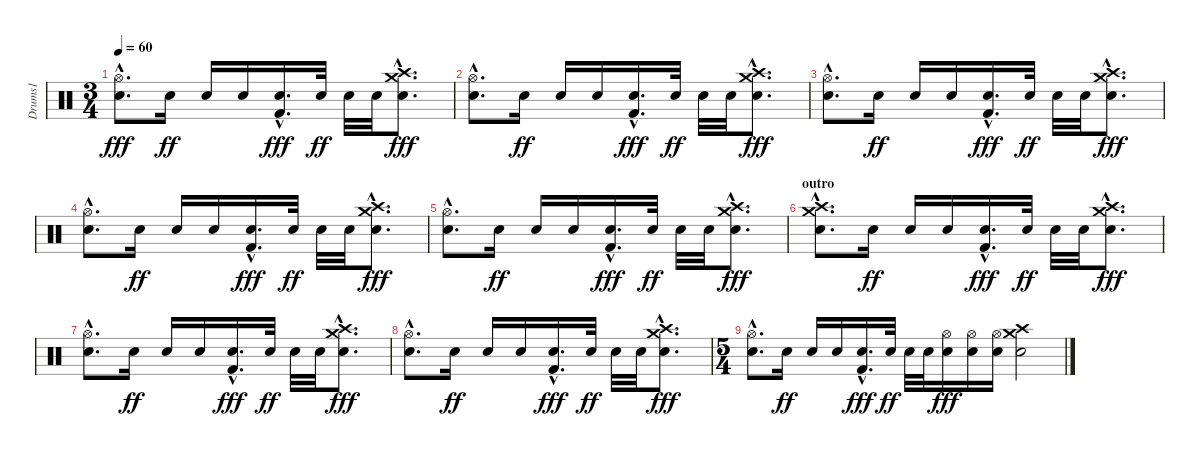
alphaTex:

\track ("Drums1" "Drums1") {instrument percussion}
\staff {score}
\articulation defaults
\ts (3 4)
\tempo 60
\clef neutral
\ks c
("Hi-Hat (open)"{hac} "Electric Snare (hit)"{hac}).8{d dy fff} "Electric Snare (hit)".16{dy ff} "Electric Snare (hit)".16 "Electric Snare (hit)".16 ("Kick (hit) 2"{hac} "Electric Snare (hit)"{hac}).16{d dy fff} "Electric Snare (hit)".32{dy ff} "Electric Snare (hit)".32 "Electric Snare (hit)".32 ("Crash high (hit)"{hac} "Crash medium (hit)"{hac} "Electric Snare (hit)"{hac}).8{d dy fff} |
("Hi-Hat (open)"{hac} "Electric Snare (hit)"{hac}).8{d} "Electric Snare (hit)".16{dy ff} "Electric Snare (hit)".16 "Electric Snare (hit)".16 ("Kick (hit) 2"{hac} "Electric Snare (hit)"{hac}).16{d dy fff} "Electric Snare (hit)".32{dy ff} "Electric Snare (hit)".32 "Electric Snare (hit)".32 ("Crash high (hit)"{hac} "Crash medium (hit)"{hac} "Electric Snare (hit)"{hac}).8{d dy fff} |
("Hi-Hat (open)"{hac} "Electric Snare (hit)"{hac}).8{d} "Electric Snare (hit)".16{dy ff} "Electric Snare (hit)".16 "Electric Snare (hit)".16 ("Kick (hit) 2"{hac} "Electric Snare (hit)"{hac}).16{d dy fff} "Electric Snare (hit)".32{dy ff} "Electric Snare (hit)".32 "Electric Snare (hit)".32 ("Crash high (hit)"{hac} "Crash medium (hit)"{hac} "Electric Snare (hit)"{hac}).8{d dy fff} |
("Hi-Hat (open)"{hac} "Electric Snare (hit)"{hac}).8{d} "Electric Snare (hit)".16{dy ff} "Electric Snare (hit)".16 "Electric Snare (hit)".16 ("Kick (hit) 2"{hac} "Electric Snare (hit)"{hac}).16{d dy fff} "Electric Snare (hit)".32{dy ff} "Electric Snare (hit)".32 "Electric Snare (hit)".32 ("Crash high (hit)"{hac} "Crash medium (hit)"{hac} "Electric Snare (hit)"{hac}).8{d dy fff} |
("Hi-Hat (open)"{hac} "Electric Snare (hit)"{hac}).8{d} "Electric Snare (hit)".16{dy ff} "Electric Snare (hit)".16 "Electric Snare (hit)".16 ("Kick (hit) 2"{hac} "Electric Snare (hit)"{hac}).16{d dy fff} "Electric Snare (hit)".32{dy ff} "Electric Snare (hit)".32 "Electric Snare (hit)".32 ("Crash high (hit)"{hac} "Crash medium (hit)"{hac} "Electric Snare (hit)"{hac}).8{d dy fff} |
\section ("" "outro")
("Crash high (hit)"{hac} "Crash medium (hit)"{hac} "Electric Snare (hit)"{hac}).8{d} "Electric Snare (hit)".16{dy ff} "Electric Snare (hit)".16 "Electric Snare (hit)".16 ("Kick (hit) 2"{hac} "Electric Snare (hit)"{hac}).16{d dy fff} "Electric Snare (hit)".32{dy ff} "Electric Snare (hit)".32 "Electric Snare (hit)".32 ("Crash high (hit)"{hac} "Crash medium (hit)"{hac} "Electric Snare (hit)"{hac}).8{d dy fff} |
("Hi-Hat (open)"{hac} "Electric Snare (hit)"{hac}).8{d} "Electric Snare (hit)".16{dy ff} "Electric Snare (hit)".16 "Electric Snare (hit)".16 ("Kick (hit) 2"{hac} "Electric Snare (hit)"{hac}).16{d dy fff} "Electric Snare (hit)".32{dy ff} "Electric Snare (hit)".32 "Electric Snare (hit)".32 ("Crash high (hit)"{hac} "Crash medium (hit)"{hac} "Electric Snare (hit)"{hac}).8{d dy fff} |
("Hi-Hat (open)"{hac} "Electric Snare (hit)"{hac}).8{d} "Electric Snare (hit)".16{dy ff} "Electric Snare (hit)".16 "Electric Snare (hit)".16 ("Kick (hit) 2"{hac} "Electric Snare (hit)"{hac}).16{d dy fff} "Electric Snare (hit)".32{dy ff} "Electric Snare (hit)".32 "Electric Snare (hit)".32 ("Crash high (hit)"{hac} "Crash medium (hit)"{hac} "Electric Snare (hit)"{hac}).8{d dy fff} |
\ts (5 4)
("Hi-Hat (open)"{hac} "Electric Snare (hit)"{hac}).8{d} "Electric Snare (hit)".16{dy ff} "Electric Snare (hit)".16 "Electric Snare (hit)".16 ("Kick (hit) 2"{hac} "Electric Snare (hit)"{hac}).16{d dy fff} "Electric Snare (hit)".32{dy ff} "Electric Snare (hit)".32 "Electric Snare (hit)".32 ("Hi-Hat (open)" "Electric Snare (hit)").16{dy fff} ("Hi-Hat (open)" "Electric Snare (hit)").16 ("Hi-Hat (open)" "Electric Snare (hit)").16 ("Crash high (hit)" "Crash medium (hit)" "Electric Snare (hit)").2
